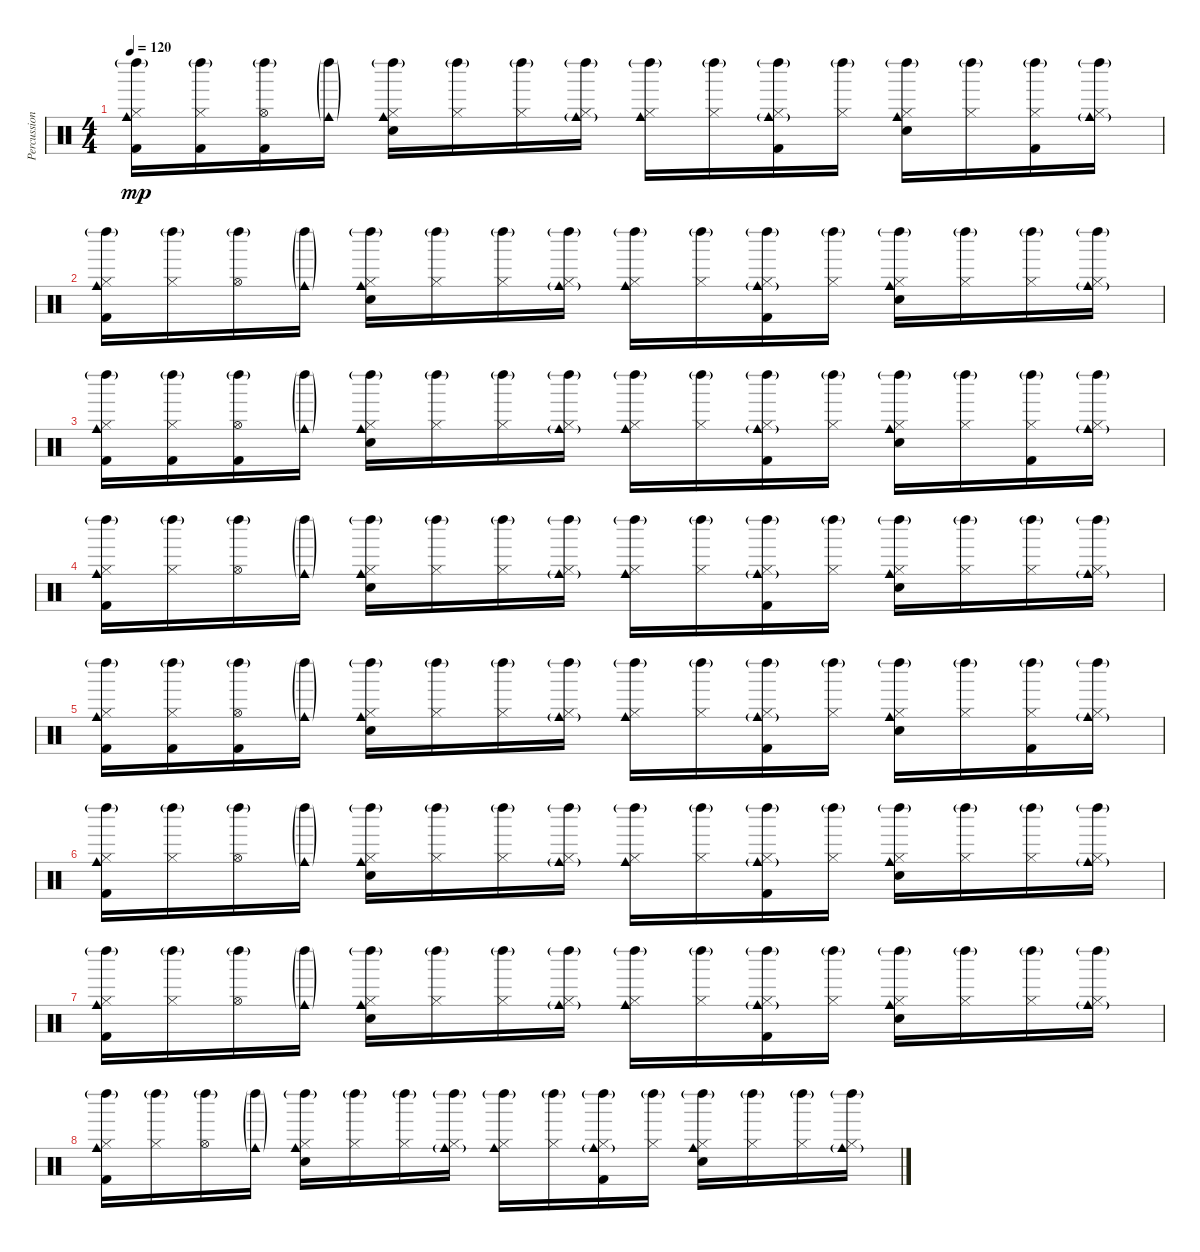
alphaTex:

\track ("Percussion" "Percussion") {instrument percussion}
\staff {score}
\articulation defaults
\ts (4 4)
\tempo 120
\clef neutral
\ks c
("Kick (hit) 2" "Hi-Hat (closed)" "Cowbell medium (hit)" "Left Maraca (hit)"{g}).16{dy mp} ("Kick (hit) 2" "Hi-Hat (closed)" "Left Maraca (hit)"{g}).16 ("Kick (hit) 2" "Hi-Hat (open)" "Left Maraca (hit)"{g}).16 ("Cowbell medium (hit)"{g} "Left Maraca (hit)"{g}).16 ("Electric Snare (hit)" "Hi-Hat (closed)" "Cowbell medium (hit)" "Left Maraca (hit)"{g}).16 ("Hi-Hat (closed)" "Left Maraca (hit)"{g}).16 ("Hi-Hat (closed)" "Left Maraca (hit)"{g}).16 ("Hi-Hat (closed)" "Cowbell medium (hit)"{g} "Left Maraca (hit)"{g}).16 ("Hi-Hat (closed)" "Cowbell medium (hit)" "Left Maraca (hit)"{g}).16 ("Hi-Hat (closed)" "Left Maraca (hit)"{g}).16 ("Kick (hit) 2" "Hi-Hat (closed)" "Cowbell medium (hit)"{g} "Left Maraca (hit)"{g}).16 ("Hi-Hat (closed)" "Left Maraca (hit)"{g}).16 ("Electric Snare (hit)" "Hi-Hat (closed)" "Cowbell medium (hit)" "Left Maraca (hit)"{g}).16 ("Hi-Hat (closed)" "Left Maraca (hit)"{g}).16 ("Kick (hit) 2" "Hi-Hat (closed)" "Left Maraca (hit)"{g}).16 ("Hi-Hat (closed)" "Cowbell medium (hit)"{g} "Left Maraca (hit)"{g}).16 |
("Kick (hit) 2" "Hi-Hat (closed)" "Cowbell medium (hit)" "Left Maraca (hit)"{g}).16 ("Hi-Hat (closed)" "Left Maraca (hit)"{g}).16 ("Hi-Hat (open)" "Left Maraca (hit)"{g}).16 ("Cowbell medium (hit)"{g} "Left Maraca (hit)"{g}).16 ("Electric Snare (hit)" "Hi-Hat (closed)" "Cowbell medium (hit)" "Left Maraca (hit)"{g}).16 ("Hi-Hat (closed)" "Left Maraca (hit)"{g}).16 ("Hi-Hat (closed)" "Left Maraca (hit)"{g}).16 ("Hi-Hat (closed)" "Cowbell medium (hit)"{g} "Left Maraca (hit)"{g}).16 ("Hi-Hat (closed)" "Cowbell medium (hit)" "Left Maraca (hit)"{g}).16 ("Hi-Hat (closed)" "Left Maraca (hit)"{g}).16 ("Kick (hit) 2" "Hi-Hat (closed)" "Cowbell medium (hit)"{g} "Left Maraca (hit)"{g}).16 ("Hi-Hat (closed)" "Left Maraca (hit)"{g}).16 ("Electric Snare (hit)" "Hi-Hat (closed)" "Cowbell medium (hit)" "Left Maraca (hit)"{g}).16 ("Hi-Hat (closed)" "Left Maraca (hit)"{g}).16 ("Hi-Hat (closed)" "Left Maraca (hit)"{g}).16 ("Hi-Hat (closed)" "Cowbell medium (hit)"{g} "Left Maraca (hit)"{g}).16 |
("Kick (hit) 2" "Hi-Hat (closed)" "Cowbell medium (hit)" "Left Maraca (hit)"{g}).16 ("Kick (hit) 2" "Hi-Hat (closed)" "Left Maraca (hit)"{g}).16 ("Kick (hit) 2" "Hi-Hat (open)" "Left Maraca (hit)"{g}).16 ("Cowbell medium (hit)"{g} "Left Maraca (hit)"{g}).16 ("Electric Snare (hit)" "Hi-Hat (closed)" "Cowbell medium (hit)" "Left Maraca (hit)"{g}).16 ("Hi-Hat (closed)" "Left Maraca (hit)"{g}).16 ("Hi-Hat (closed)" "Left Maraca (hit)"{g}).16 ("Hi-Hat (closed)" "Cowbell medium (hit)"{g} "Left Maraca (hit)"{g}).16 ("Hi-Hat (closed)" "Cowbell medium (hit)" "Left Maraca (hit)"{g}).16 ("Hi-Hat (closed)" "Left Maraca (hit)"{g}).16 ("Kick (hit) 2" "Hi-Hat (closed)" "Cowbell medium (hit)"{g} "Left Maraca (hit)"{g}).16 ("Hi-Hat (closed)" "Left Maraca (hit)"{g}).16 ("Electric Snare (hit)" "Hi-Hat (closed)" "Cowbell medium (hit)" "Left Maraca (hit)"{g}).16 ("Hi-Hat (closed)" "Left Maraca (hit)"{g}).16 ("Kick (hit) 2" "Hi-Hat (closed)" "Left Maraca (hit)"{g}).16 ("Hi-Hat (closed)" "Cowbell medium (hit)"{g} "Left Maraca (hit)"{g}).16 |
("Kick (hit) 2" "Hi-Hat (closed)" "Cowbell medium (hit)" "Left Maraca (hit)"{g}).16 ("Hi-Hat (closed)" "Left Maraca (hit)"{g}).16 ("Hi-Hat (open)" "Left Maraca (hit)"{g}).16 ("Cowbell medium (hit)"{g} "Left Maraca (hit)"{g}).16 ("Electric Snare (hit)" "Hi-Hat (closed)" "Cowbell medium (hit)" "Left Maraca (hit)"{g}).16 ("Hi-Hat (closed)" "Left Maraca (hit)"{g}).16 ("Hi-Hat (closed)" "Left Maraca (hit)"{g}).16 ("Hi-Hat (closed)" "Cowbell medium (hit)"{g} "Left Maraca (hit)"{g}).16 ("Hi-Hat (closed)" "Cowbell medium (hit)" "Left Maraca (hit)"{g}).16 ("Hi-Hat (closed)" "Left Maraca (hit)"{g}).16 ("Kick (hit) 2" "Hi-Hat (closed)" "Cowbell medium (hit)"{g} "Left Maraca (hit)"{g}).16 ("Hi-Hat (closed)" "Left Maraca (hit)"{g}).16 ("Electric Snare (hit)" "Hi-Hat (closed)" "Cowbell medium (hit)" "Left Maraca (hit)"{g}).16 ("Hi-Hat (closed)" "Left Maraca (hit)"{g}).16 ("Hi-Hat (closed)" "Left Maraca (hit)"{g}).16 ("Hi-Hat (closed)" "Cowbell medium (hit)"{g} "Left Maraca (hit)"{g}).16 |
("Kick (hit) 2" "Hi-Hat (closed)" "Cowbell medium (hit)" "Left Maraca (hit)"{g}).16 ("Kick (hit) 2" "Hi-Hat (closed)" "Left Maraca (hit)"{g}).16 ("Kick (hit) 2" "Hi-Hat (open)" "Left Maraca (hit)"{g}).16 ("Cowbell medium (hit)"{g} "Left Maraca (hit)"{g}).16 ("Electric Snare (hit)" "Hi-Hat (closed)" "Cowbell medium (hit)" "Left Maraca (hit)"{g}).16 ("Hi-Hat (closed)" "Left Maraca (hit)"{g}).16 ("Hi-Hat (closed)" "Left Maraca (hit)"{g}).16 ("Hi-Hat (closed)" "Cowbell medium (hit)"{g} "Left Maraca (hit)"{g}).16 ("Hi-Hat (closed)" "Cowbell medium (hit)" "Left Maraca (hit)"{g}).16 ("Hi-Hat (closed)" "Left Maraca (hit)"{g}).16 ("Kick (hit) 2" "Hi-Hat (closed)" "Cowbell medium (hit)"{g} "Left Maraca (hit)"{g}).16 ("Hi-Hat (closed)" "Left Maraca (hit)"{g}).16 ("Electric Snare (hit)" "Hi-Hat (closed)" "Cowbell medium (hit)" "Left Maraca (hit)"{g}).16 ("Hi-Hat (closed)" "Left Maraca (hit)"{g}).16 ("Kick (hit) 2" "Hi-Hat (closed)" "Left Maraca (hit)"{g}).16 ("Hi-Hat (closed)" "Cowbell medium (hit)"{g} "Left Maraca (hit)"{g}).16 |
("Kick (hit) 2" "Hi-Hat (closed)" "Cowbell medium (hit)" "Left Maraca (hit)"{g}).16 ("Hi-Hat (closed)" "Left Maraca (hit)"{g}).16 ("Hi-Hat (open)" "Left Maraca (hit)"{g}).16 ("Cowbell medium (hit)"{g} "Left Maraca (hit)"{g}).16 ("Electric Snare (hit)" "Hi-Hat (closed)" "Cowbell medium (hit)" "Left Maraca (hit)"{g}).16 ("Hi-Hat (closed)" "Left Maraca (hit)"{g}).16 ("Hi-Hat (closed)" "Left Maraca (hit)"{g}).16 ("Hi-Hat (closed)" "Cowbell medium (hit)"{g} "Left Maraca (hit)"{g}).16 ("Hi-Hat (closed)" "Cowbell medium (hit)" "Left Maraca (hit)"{g}).16 ("Hi-Hat (closed)" "Left Maraca (hit)"{g}).16 ("Kick (hit) 2" "Hi-Hat (closed)" "Cowbell medium (hit)"{g} "Left Maraca (hit)"{g}).16 ("Hi-Hat (closed)" "Left Maraca (hit)"{g}).16 ("Electric Snare (hit)" "Hi-Hat (closed)" "Cowbell medium (hit)" "Left Maraca (hit)"{g}).16 ("Hi-Hat (closed)" "Left Maraca (hit)"{g}).16 ("Hi-Hat (closed)" "Left Maraca (hit)"{g}).16 ("Hi-Hat (closed)" "Cowbell medium (hit)"{g} "Left Maraca (hit)"{g}).16 |
("Kick (hit) 2" "Hi-Hat (closed)" "Cowbell medium (hit)" "Left Maraca (hit)"{g}).16 ("Hi-Hat (closed)" "Left Maraca (hit)"{g}).16 ("Hi-Hat (open)" "Left Maraca (hit)"{g}).16 ("Cowbell medium (hit)"{g} "Left Maraca (hit)"{g}).16 ("Electric Snare (hit)" "Hi-Hat (closed)" "Cowbell medium (hit)" "Left Maraca (hit)"{g}).16 ("Hi-Hat (closed)" "Left Maraca (hit)"{g}).16 ("Hi-Hat (closed)" "Left Maraca (hit)"{g}).16 ("Hi-Hat (closed)" "Cowbell medium (hit)"{g} "Left Maraca (hit)"{g}).16 ("Hi-Hat (closed)" "Cowbell medium (hit)" "Left Maraca (hit)"{g}).16 ("Hi-Hat (closed)" "Left Maraca (hit)"{g}).16 ("Kick (hit) 2" "Hi-Hat (closed)" "Cowbell medium (hit)"{g} "Left Maraca (hit)"{g}).16 ("Hi-Hat (closed)" "Left Maraca (hit)"{g}).16 ("Electric Snare (hit)" "Hi-Hat (closed)" "Cowbell medium (hit)" "Left Maraca (hit)"{g}).16 ("Hi-Hat (closed)" "Left Maraca (hit)"{g}).16 ("Hi-Hat (closed)" "Left Maraca (hit)"{g}).16 ("Hi-Hat (closed)" "Cowbell medium (hit)"{g} "Left Maraca (hit)"{g}).16 |
("Kick (hit) 2" "Hi-Hat (closed)" "Cowbell medium (hit)" "Left Maraca (hit)"{g}).16 ("Hi-Hat (closed)" "Left Maraca (hit)"{g}).16 ("Hi-Hat (open)" "Left Maraca (hit)"{g}).16 ("Cowbell medium (hit)"{g} "Left Maraca (hit)"{g}).16 ("Electric Snare (hit)" "Hi-Hat (closed)" "Cowbell medium (hit)" "Left Maraca (hit)"{g}).16 ("Hi-Hat (closed)" "Left Maraca (hit)"{g}).16 ("Hi-Hat (closed)" "Left Maraca (hit)"{g}).16 ("Hi-Hat (closed)" "Cowbell medium (hit)"{g} "Left Maraca (hit)"{g}).16 ("Hi-Hat (closed)" "Cowbell medium (hit)" "Left Maraca (hit)"{g}).16 ("Hi-Hat (closed)" "Left Maraca (hit)"{g}).16 ("Kick (hit) 2" "Hi-Hat (closed)" "Cowbell medium (hit)"{g} "Left Maraca (hit)"{g}).16 ("Hi-Hat (closed)" "Left Maraca (hit)"{g}).16 ("Electric Snare (hit)" "Hi-Hat (closed)" "Cowbell medium (hit)" "Left Maraca (hit)"{g}).16 ("Hi-Hat (closed)" "Left Maraca (hit)"{g}).16 ("Hi-Hat (closed)" "Left Maraca (hit)"{g}).16 ("Hi-Hat (closed)" "Cowbell medium (hit)"{g} "Left Maraca (hit)"{g}).16
